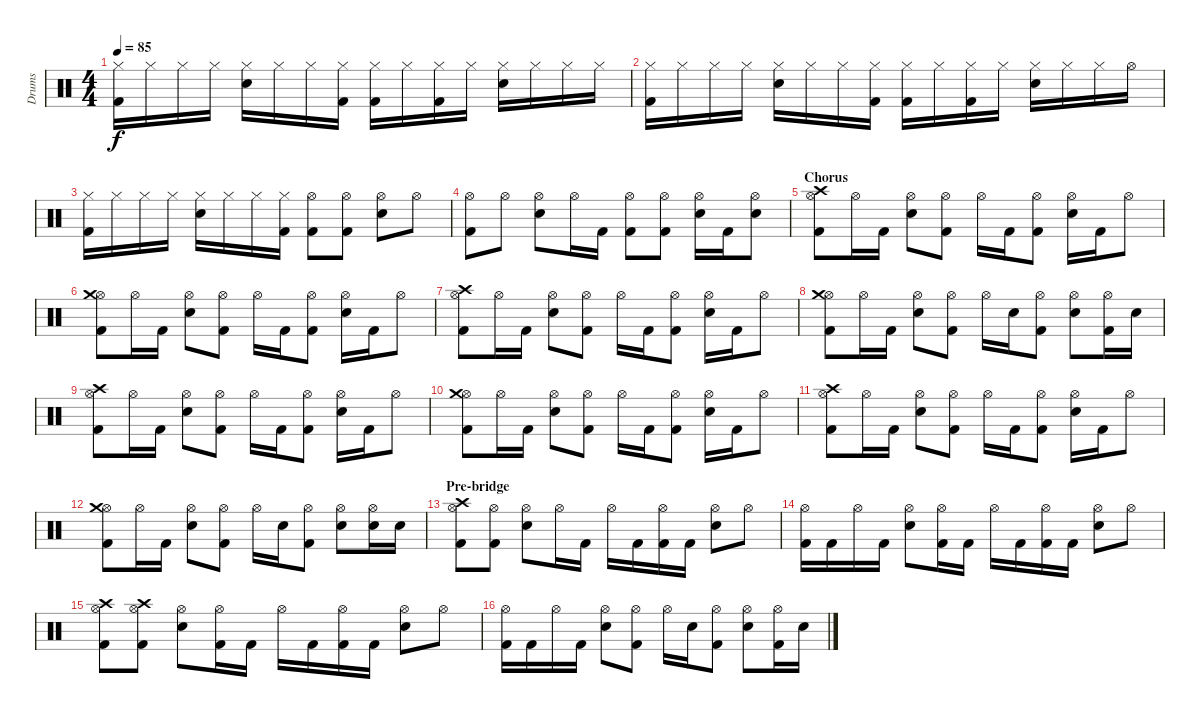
\track ("Drums" "Drums") {instrument percussion}
\staff {score}
\articulation defaults
\ts (4 4)
\tempo 85
\clef neutral
\ks c
("Hi-Hat (closed)" "Kick (hit) 2").16{dy f} "Hi-Hat (closed)".16 "Hi-Hat (closed)".16 "Hi-Hat (closed)".16 ("Hi-Hat (closed)" "Electric Snare (hit)").16 "Hi-Hat (closed)".16 "Hi-Hat (closed)".16 ("Hi-Hat (closed)" "Kick (hit) 2").16 ("Hi-Hat (closed)" "Kick (hit) 2").16 "Hi-Hat (closed)".16 ("Hi-Hat (closed)" "Kick (hit) 2").16 "Hi-Hat (closed)".16 ("Hi-Hat (closed)" "Electric Snare (hit)").16 "Hi-Hat (closed)".16 "Hi-Hat (closed)".16 "Hi-Hat (closed)".16 |
("Hi-Hat (closed)" "Kick (hit) 2").16 "Hi-Hat (closed)".16 "Hi-Hat (closed)".16 "Hi-Hat (closed)".16 ("Hi-Hat (closed)" "Electric Snare (hit)").16 "Hi-Hat (closed)".16 "Hi-Hat (closed)".16 ("Hi-Hat (closed)" "Kick (hit) 2").16 ("Hi-Hat (closed)" "Kick (hit) 2").16 "Hi-Hat (closed)".16 ("Hi-Hat (closed)" "Kick (hit) 2").16 "Hi-Hat (closed)".16 ("Hi-Hat (closed)" "Electric Snare (hit)").16 "Hi-Hat (closed)".16 "Hi-Hat (closed)".16 "Hi-Hat (open)".16 |
("Hi-Hat (closed)" "Kick (hit) 2").16 "Hi-Hat (closed)".16 "Hi-Hat (closed)".16 "Hi-Hat (closed)".16 ("Hi-Hat (closed)" "Electric Snare (hit)").16 "Hi-Hat (closed)".16 "Hi-Hat (closed)".16 ("Hi-Hat (closed)" "Kick (hit) 2").16 ("Hi-Hat (open)" "Kick (hit) 2").8 ("Hi-Hat (open)" "Kick (hit) 2").8 ("Hi-Hat (open)" "Electric Snare (hit)").8 "Hi-Hat (open)".8 |
("Hi-Hat (open)" "Kick (hit) 2").8 "Hi-Hat (open)".8 ("Hi-Hat (open)" "Electric Snare (hit)").8 "Hi-Hat (open)".16 "Kick (hit) 2".16 ("Hi-Hat (open)" "Kick (hit) 2").8 ("Hi-Hat (open)" "Kick (hit) 2").8 ("Hi-Hat (open)" "Electric Snare (hit)").16 "Kick (hit) 2".16 ("Hi-Hat (open)" "Electric Snare (hit)").8 |
\section ("" "Chorus")
("Hi-Hat (open)" "Kick (hit) 2" "Crash high (hit)").8 "Hi-Hat (open)".16 "Kick (hit) 2".16 ("Hi-Hat (open)" "Electric Snare (hit)").8 ("Hi-Hat (open)" "Kick (hit) 2").8 "Hi-Hat (open)".16 "Kick (hit) 2".16 ("Hi-Hat (open)" "Kick (hit) 2").8 ("Hi-Hat (open)" "Electric Snare (hit)").16 "Kick (hit) 2".16 "Hi-Hat (open)".8 |
("Hi-Hat (open)" "Kick (hit) 2" "Crash medium (hit)").8 "Hi-Hat (open)".16 "Kick (hit) 2".16 ("Hi-Hat (open)" "Electric Snare (hit)").8 ("Hi-Hat (open)" "Kick (hit) 2").8 "Hi-Hat (open)".16 "Kick (hit) 2".16 ("Hi-Hat (open)" "Kick (hit) 2").8 ("Hi-Hat (open)" "Electric Snare (hit)").16 "Kick (hit) 2".16 "Hi-Hat (open)".8 |
("Hi-Hat (open)" "Kick (hit) 2" "Crash high (hit)").8 "Hi-Hat (open)".16 "Kick (hit) 2".16 ("Hi-Hat (open)" "Electric Snare (hit)").8 ("Hi-Hat (open)" "Kick (hit) 2").8 "Hi-Hat (open)".16 "Kick (hit) 2".16 ("Hi-Hat (open)" "Kick (hit) 2").8 ("Hi-Hat (open)" "Electric Snare (hit)").16 "Kick (hit) 2".16 "Hi-Hat (open)".8 |
("Hi-Hat (open)" "Kick (hit) 2" "Crash medium (hit)").8 "Hi-Hat (open)".16 "Kick (hit) 2".16 ("Hi-Hat (open)" "Electric Snare (hit)").8 ("Hi-Hat (open)" "Kick (hit) 2").8 "Hi-Hat (open)".16 "Electric Snare (hit)".16 ("Hi-Hat (open)" "Kick (hit) 2").8 ("Hi-Hat (open)" "Electric Snare (hit)").8 ("Hi-Hat (open)" "Kick (hit) 2").16 "Electric Snare (hit)".16 |
("Hi-Hat (open)" "Kick (hit) 2" "Crash high (hit)").8 "Hi-Hat (open)".16 "Kick (hit) 2".16 ("Hi-Hat (open)" "Electric Snare (hit)").8 ("Hi-Hat (open)" "Kick (hit) 2").8 "Hi-Hat (open)".16 "Kick (hit) 2".16 ("Hi-Hat (open)" "Kick (hit) 2").8 ("Hi-Hat (open)" "Electric Snare (hit)").16 "Kick (hit) 2".16 "Hi-Hat (open)".8 |
("Hi-Hat (open)" "Kick (hit) 2" "Crash medium (hit)").8 "Hi-Hat (open)".16 "Kick (hit) 2".16 ("Hi-Hat (open)" "Electric Snare (hit)").8 ("Hi-Hat (open)" "Kick (hit) 2").8 "Hi-Hat (open)".16 "Kick (hit) 2".16 ("Hi-Hat (open)" "Kick (hit) 2").8 ("Hi-Hat (open)" "Electric Snare (hit)").16 "Kick (hit) 2".16 "Hi-Hat (open)".8 |
("Hi-Hat (open)" "Kick (hit) 2" "Crash high (hit)").8 "Hi-Hat (open)".16 "Kick (hit) 2".16 ("Hi-Hat (open)" "Electric Snare (hit)").8 ("Hi-Hat (open)" "Kick (hit) 2").8 "Hi-Hat (open)".16 "Kick (hit) 2".16 ("Hi-Hat (open)" "Kick (hit) 2").8 ("Hi-Hat (open)" "Electric Snare (hit)").16 "Kick (hit) 2".16 "Hi-Hat (open)".8 |
("Hi-Hat (open)" "Kick (hit) 2" "Crash medium (hit)").8 "Hi-Hat (open)".16 "Kick (hit) 2".16 ("Hi-Hat (open)" "Electric Snare (hit)").8 ("Hi-Hat (open)" "Kick (hit) 2").8 "Hi-Hat (open)".16 "Electric Snare (hit)".16 ("Hi-Hat (open)" "Kick (hit) 2").8 ("Hi-Hat (open)" "Electric Snare (hit)").8 ("Hi-Hat (open)" "Electric Snare (hit)").16 "Electric Snare (hit)".16 |
\section ("" "Pre-bridge")
("Hi-Hat (open)" "Kick (hit) 2" "Crash high (hit)").8 ("Hi-Hat (open)" "Kick (hit) 2").8 ("Hi-Hat (open)" "Electric Snare (hit)").8 "Hi-Hat (open)".16 "Kick (hit) 2".16 "Hi-Hat (open)".16 "Kick (hit) 2".16 ("Hi-Hat (open)" "Kick (hit) 2").16 "Kick (hit) 2".16 ("Hi-Hat (open)" "Electric Snare (hit)").8 "Hi-Hat (open)".8 |
("Hi-Hat (open)" "Kick (hit) 2").16 "Kick (hit) 2".16 "Hi-Hat (open)".16 "Kick (hit) 2".16 ("Hi-Hat (open)" "Electric Snare (hit)").8 ("Hi-Hat (open)" "Kick (hit) 2").16 "Kick (hit) 2".16 "Hi-Hat (open)".16 "Kick (hit) 2".16 ("Hi-Hat (open)" "Kick (hit) 2").16 "Kick (hit) 2".16 ("Hi-Hat (open)" "Electric Snare (hit)").8 "Hi-Hat (open)".8 |
("Hi-Hat (open)" "Kick (hit) 2" "Crash high (hit)").8 ("Hi-Hat (open)" "Kick (hit) 2" "Crash high (hit)").8 ("Hi-Hat (open)" "Electric Snare (hit)").8 ("Hi-Hat (open)" "Kick (hit) 2").16 "Kick (hit) 2".16 "Hi-Hat (open)".16 "Kick (hit) 2".16 ("Hi-Hat (open)" "Kick (hit) 2").16 "Kick (hit) 2".16 ("Hi-Hat (open)" "Electric Snare (hit)").8 "Hi-Hat (open)".8 |
("Hi-Hat (open)" "Kick (hit) 2").16 "Kick (hit) 2".16 "Hi-Hat (open)".16 "Kick (hit) 2".16 ("Hi-Hat (open)" "Electric Snare (hit)").8 ("Hi-Hat (open)" "Kick (hit) 2").8 "Hi-Hat (open)".16 "Electric Snare (hit)".16 ("Hi-Hat (open)" "Kick (hit) 2").8 ("Hi-Hat (open)" "Electric Snare (hit)").8 ("Hi-Hat (open)" "Kick (hit) 2").16 "Electric Snare (hit)".16
